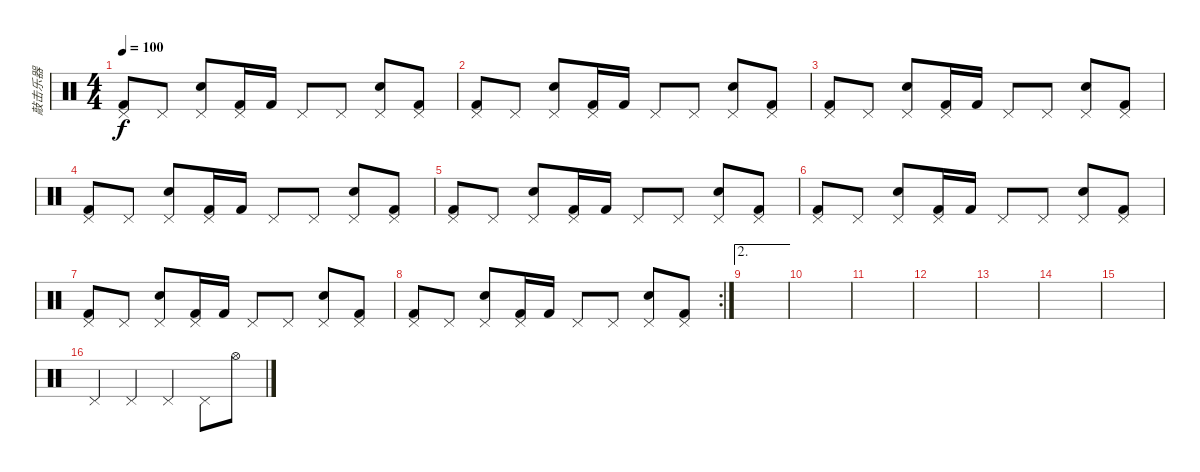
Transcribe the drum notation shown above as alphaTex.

\track ("敲击乐器" "敲击乐器") {instrument percussion}
\staff {score}
\articulation defaults
\ts (4 4)
\tempo 100
\clef neutral
\ks c
("Pedal Hi-Hat (hit)" "Kick (hit) 2").8{dy f} "Pedal Hi-Hat (hit)".8 ("Pedal Hi-Hat (hit)" "Electric Snare (hit)").8 ("Pedal Hi-Hat (hit)" "Kick (hit) 2").16 "Kick (hit) 2".16 "Pedal Hi-Hat (hit)".8 "Pedal Hi-Hat (hit)".8 ("Pedal Hi-Hat (hit)" "Electric Snare (hit)").8 ("Pedal Hi-Hat (hit)" "Kick (hit) 2").8 |
("Pedal Hi-Hat (hit)" "Kick (hit) 2").8 "Pedal Hi-Hat (hit)".8 ("Pedal Hi-Hat (hit)" "Electric Snare (hit)").8 ("Pedal Hi-Hat (hit)" "Kick (hit) 2").16 "Kick (hit) 2".16 "Pedal Hi-Hat (hit)".8 "Pedal Hi-Hat (hit)".8 ("Pedal Hi-Hat (hit)" "Electric Snare (hit)").8 ("Pedal Hi-Hat (hit)" "Kick (hit) 2").8 |
("Pedal Hi-Hat (hit)" "Kick (hit) 2").8 "Pedal Hi-Hat (hit)".8 ("Pedal Hi-Hat (hit)" "Electric Snare (hit)").8 ("Pedal Hi-Hat (hit)" "Kick (hit) 2").16 "Kick (hit) 2".16 "Pedal Hi-Hat (hit)".8 "Pedal Hi-Hat (hit)".8 ("Pedal Hi-Hat (hit)" "Electric Snare (hit)").8 ("Pedal Hi-Hat (hit)" "Kick (hit) 2").8 |
("Pedal Hi-Hat (hit)" "Kick (hit) 2").8 "Pedal Hi-Hat (hit)".8 ("Pedal Hi-Hat (hit)" "Electric Snare (hit)").8 ("Pedal Hi-Hat (hit)" "Kick (hit) 2").16 "Kick (hit) 2".16 "Pedal Hi-Hat (hit)".8 "Pedal Hi-Hat (hit)".8 ("Pedal Hi-Hat (hit)" "Electric Snare (hit)").8 ("Pedal Hi-Hat (hit)" "Kick (hit) 2").8 |
("Pedal Hi-Hat (hit)" "Kick (hit) 2").8 "Pedal Hi-Hat (hit)".8 ("Pedal Hi-Hat (hit)" "Electric Snare (hit)").8 ("Pedal Hi-Hat (hit)" "Kick (hit) 2").16 "Kick (hit) 2".16 "Pedal Hi-Hat (hit)".8 "Pedal Hi-Hat (hit)".8 ("Pedal Hi-Hat (hit)" "Electric Snare (hit)").8 ("Pedal Hi-Hat (hit)" "Kick (hit) 2").8 |
("Pedal Hi-Hat (hit)" "Kick (hit) 2").8 "Pedal Hi-Hat (hit)".8 ("Pedal Hi-Hat (hit)" "Electric Snare (hit)").8 ("Pedal Hi-Hat (hit)" "Kick (hit) 2").16 "Kick (hit) 2".16 "Pedal Hi-Hat (hit)".8 "Pedal Hi-Hat (hit)".8 ("Pedal Hi-Hat (hit)" "Electric Snare (hit)").8 ("Pedal Hi-Hat (hit)" "Kick (hit) 2").8 |
("Pedal Hi-Hat (hit)" "Kick (hit) 2").8 "Pedal Hi-Hat (hit)".8 ("Pedal Hi-Hat (hit)" "Electric Snare (hit)").8 ("Pedal Hi-Hat (hit)" "Kick (hit) 2").16 "Kick (hit) 2".16 "Pedal Hi-Hat (hit)".8 "Pedal Hi-Hat (hit)".8 ("Pedal Hi-Hat (hit)" "Electric Snare (hit)").8 ("Pedal Hi-Hat (hit)" "Kick (hit) 2").8 |
\rc 2
("Pedal Hi-Hat (hit)" "Kick (hit) 2").8 "Pedal Hi-Hat (hit)".8 ("Pedal Hi-Hat (hit)" "Electric Snare (hit)").8 ("Pedal Hi-Hat (hit)" "Kick (hit) 2").16 "Kick (hit) 2".16 "Pedal Hi-Hat (hit)".8 "Pedal Hi-Hat (hit)".8 ("Pedal Hi-Hat (hit)" "Electric Snare (hit)").8 ("Pedal Hi-Hat (hit)" "Kick (hit) 2").8 |
\ae 2
|
|
|
|
|
|
|
"Pedal Hi-Hat (hit)".4 "Pedal Hi-Hat (hit)".4 "Pedal Hi-Hat (hit)".4 "Pedal Hi-Hat (hit)".8 "Hi-Hat (open)".8
